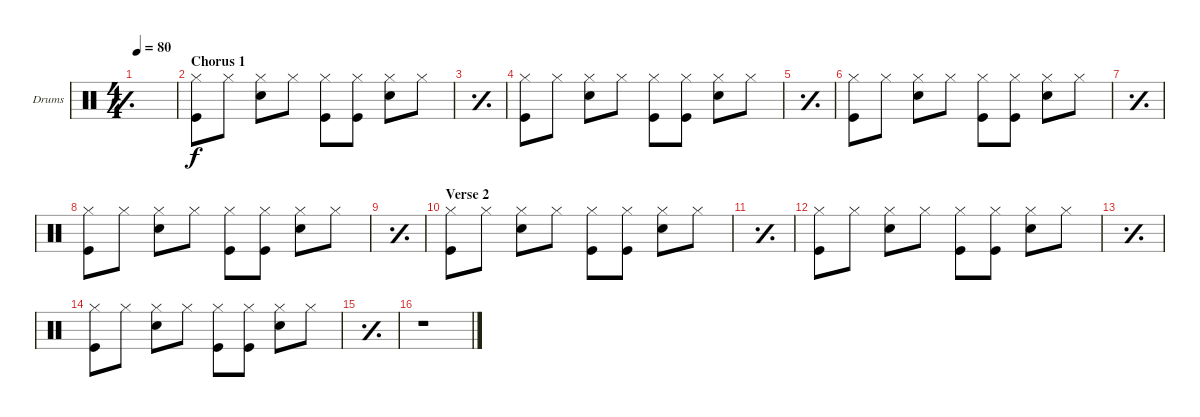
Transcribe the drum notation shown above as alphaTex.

\defaultSystemsLayout 4
\bracketExtendMode groupsimilarinstruments
\firstSystemTrackNameOrientation horizontal
\otherSystemsTrackNameOrientation horizontal
\chordDiagramsInScore
\track ("Drumkit" "Drums") {instrument percussion}
\staff {score}
\articulation defaults
\ts (4 4)
\tempo 80
\clef neutral
\simile simple
\ks c
|
\section ("" "Chorus 1")
("Hi-Hat (closed)" "Kick (hit)").8 "Hi-Hat (closed)".8 ("Hi-Hat (closed)" "Snare (hit) 2").8 "Hi-Hat (closed)".8 ("Hi-Hat (closed)" "Kick (hit)").8 ("Hi-Hat (closed)" "Kick (hit)").8 ("Hi-Hat (closed)" "Snare (hit) 2").8 "Hi-Hat (closed)".8 |
\simile simple
|
\simile none
("Hi-Hat (closed)" "Kick (hit)").8 "Hi-Hat (closed)".8 ("Hi-Hat (closed)" "Snare (hit) 2").8 "Hi-Hat (closed)".8 ("Hi-Hat (closed)" "Kick (hit)").8 ("Hi-Hat (closed)" "Kick (hit)").8 ("Hi-Hat (closed)" "Snare (hit) 2").8 "Hi-Hat (closed)".8 |
\simile simple
|
\simile none
("Hi-Hat (closed)" "Kick (hit)").8 "Hi-Hat (closed)".8 ("Hi-Hat (closed)" "Snare (hit) 2").8 "Hi-Hat (closed)".8 ("Hi-Hat (closed)" "Kick (hit)").8 ("Hi-Hat (closed)" "Kick (hit)").8 ("Hi-Hat (closed)" "Snare (hit) 2").8 "Hi-Hat (closed)".8 |
\simile simple
|
\simile none
("Hi-Hat (closed)" "Kick (hit)").8 "Hi-Hat (closed)".8 ("Hi-Hat (closed)" "Snare (hit) 2").8 "Hi-Hat (closed)".8 ("Hi-Hat (closed)" "Kick (hit)").8 ("Hi-Hat (closed)" "Kick (hit)").8 ("Hi-Hat (closed)" "Snare (hit) 2").8 "Hi-Hat (closed)".8 |
\simile simple
|
\section ("" "Verse 2")
\simile none
("Hi-Hat (closed)" "Kick (hit)").8 "Hi-Hat (closed)".8 ("Hi-Hat (closed)" "Snare (hit) 2").8 "Hi-Hat (closed)".8 ("Hi-Hat (closed)" "Kick (hit)").8 ("Hi-Hat (closed)" "Kick (hit)").8 ("Hi-Hat (closed)" "Snare (hit) 2").8 "Hi-Hat (closed)".8 |
\simile simple
|
\simile none
("Hi-Hat (closed)" "Kick (hit)").8 "Hi-Hat (closed)".8 ("Hi-Hat (closed)" "Snare (hit) 2").8 "Hi-Hat (closed)".8 ("Hi-Hat (closed)" "Kick (hit)").8 ("Hi-Hat (closed)" "Kick (hit)").8 ("Hi-Hat (closed)" "Snare (hit) 2").8 "Hi-Hat (closed)".8 |
\simile simple
|
\simile none
("Hi-Hat (closed)" "Kick (hit)").8 "Hi-Hat (closed)".8 ("Hi-Hat (closed)" "Snare (hit) 2").8 "Hi-Hat (closed)".8 ("Hi-Hat (closed)" "Kick (hit)").8 ("Hi-Hat (closed)" "Kick (hit)").8 ("Hi-Hat (closed)" "Snare (hit) 2").8 "Hi-Hat (closed)".8 |
\simile simple
|
\simile none
r.1
